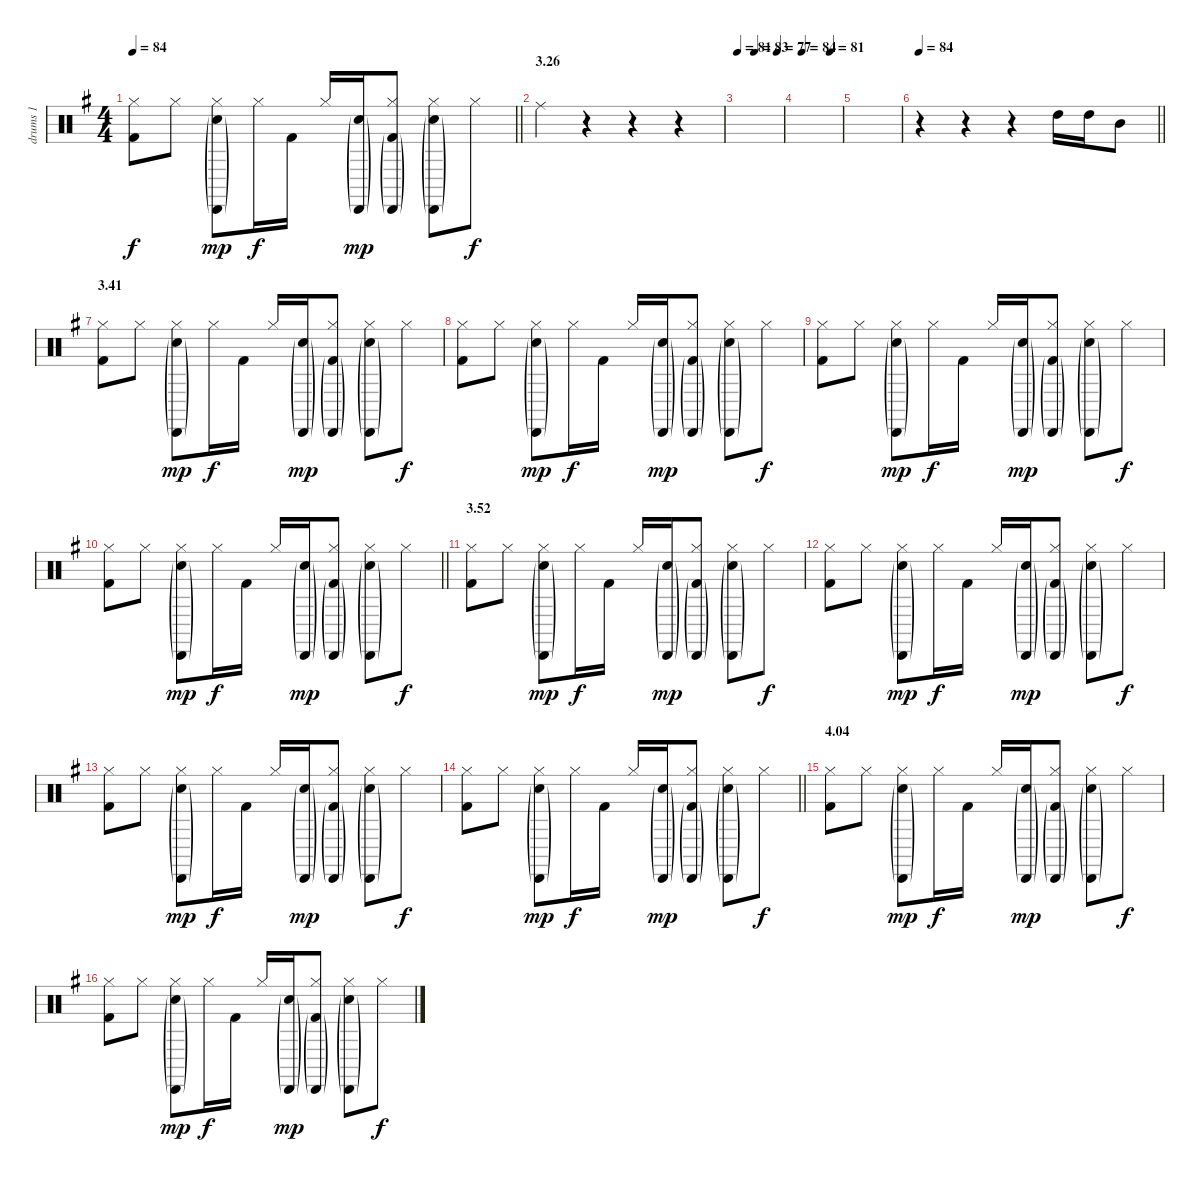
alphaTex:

\track ("drums 1" "drums 1") {instrument percussion}
\staff {score}
\articulation defaults
\ts (4 4)
\tempo 84
\clef neutral
\barLineRight lightlight
\ks g
("Hi-Hat (closed)" "Kick (hit) 2").8{dy f} "Hi-Hat (closed)".8 ("Cabasa (hit)"{g} "Hi-Hat (closed)" "Electric Snare (hit)"{g}).8{dy mp} "Hi-Hat (closed)".16{dy f} "Kick (hit) 2".16 "Hi-Hat (closed)".16 ("Cabasa (hit)"{g} "Electric Snare (hit)"{g}).16{dy mp} ("Cabasa (hit)"{g} "Hi-Hat (closed)" "Kick (hit) 2"{g}).8 ("Cabasa (hit)"{g} "Hi-Hat (closed)" "Electric Snare (hit)"{g}).8 "Hi-Hat (closed)".8{dy f} |
\section ("" "3.26")
"Ride (middle)".4 r.4 r.4 r.4 |
\tempo 81
\tempo (83 0.375)
\tempo (77 0.875)
|
\tempo (84 0.125)
\tempo (81 0.75)
|
|
\tempo 84
\barLineRight lightlight
r.4 r.4 r.4 "High Tom (hit)".16 "High Tom (hit)".16 "Mid Tom (hit)".8 |
\section ("" "3.41")
("Hi-Hat (closed)" "Kick (hit) 2").8 "Hi-Hat (closed)".8 ("Cabasa (hit)"{g} "Hi-Hat (closed)" "Electric Snare (hit)"{g}).8{dy mp} "Hi-Hat (closed)".16{dy f} "Kick (hit) 2".16 "Hi-Hat (closed)".16 ("Cabasa (hit)"{g} "Electric Snare (hit)"{g}).16{dy mp} ("Cabasa (hit)"{g} "Hi-Hat (closed)" "Kick (hit) 2"{g}).8 ("Cabasa (hit)"{g} "Hi-Hat (closed)" "Electric Snare (hit)"{g}).8 "Hi-Hat (closed)".8{dy f} |
("Hi-Hat (closed)" "Kick (hit) 2").8 "Hi-Hat (closed)".8 ("Cabasa (hit)"{g} "Hi-Hat (closed)" "Electric Snare (hit)"{g}).8{dy mp} "Hi-Hat (closed)".16{dy f} "Kick (hit) 2".16 "Hi-Hat (closed)".16 ("Cabasa (hit)"{g} "Electric Snare (hit)"{g}).16{dy mp} ("Cabasa (hit)"{g} "Hi-Hat (closed)" "Kick (hit) 2"{g}).8 ("Cabasa (hit)"{g} "Hi-Hat (closed)" "Electric Snare (hit)"{g}).8 "Hi-Hat (closed)".8{dy f} |
("Hi-Hat (closed)" "Kick (hit) 2").8 "Hi-Hat (closed)".8 ("Cabasa (hit)"{g} "Hi-Hat (closed)" "Electric Snare (hit)"{g}).8{dy mp} "Hi-Hat (closed)".16{dy f} "Kick (hit) 2".16 "Hi-Hat (closed)".16 ("Cabasa (hit)"{g} "Electric Snare (hit)"{g}).16{dy mp} ("Cabasa (hit)"{g} "Hi-Hat (closed)" "Kick (hit) 2"{g}).8 ("Cabasa (hit)"{g} "Hi-Hat (closed)" "Electric Snare (hit)"{g}).8 "Hi-Hat (closed)".8{dy f} |
\barLineRight lightlight
("Hi-Hat (closed)" "Kick (hit) 2").8 "Hi-Hat (closed)".8 ("Cabasa (hit)"{g} "Hi-Hat (closed)" "Electric Snare (hit)"{g}).8{dy mp} "Hi-Hat (closed)".16{dy f} "Kick (hit) 2".16 "Hi-Hat (closed)".16 ("Cabasa (hit)"{g} "Electric Snare (hit)"{g}).16{dy mp} ("Cabasa (hit)"{g} "Hi-Hat (closed)" "Kick (hit) 2"{g}).8 ("Cabasa (hit)"{g} "Hi-Hat (closed)" "Electric Snare (hit)"{g}).8 "Hi-Hat (closed)".8{dy f} |
\section ("" "3.52")
("Hi-Hat (closed)" "Kick (hit) 2").8 "Hi-Hat (closed)".8 ("Cabasa (hit)"{g} "Hi-Hat (closed)" "Electric Snare (hit)"{g}).8{dy mp} "Hi-Hat (closed)".16{dy f} "Kick (hit) 2".16 "Hi-Hat (closed)".16 ("Cabasa (hit)"{g} "Electric Snare (hit)"{g}).16{dy mp} ("Cabasa (hit)"{g} "Hi-Hat (closed)" "Kick (hit) 2"{g}).8 ("Cabasa (hit)"{g} "Hi-Hat (closed)" "Electric Snare (hit)"{g}).8 "Hi-Hat (closed)".8{dy f} |
("Hi-Hat (closed)" "Kick (hit) 2").8 "Hi-Hat (closed)".8 ("Cabasa (hit)"{g} "Hi-Hat (closed)" "Electric Snare (hit)"{g}).8{dy mp} "Hi-Hat (closed)".16{dy f} "Kick (hit) 2".16 "Hi-Hat (closed)".16 ("Cabasa (hit)"{g} "Electric Snare (hit)"{g}).16{dy mp} ("Cabasa (hit)"{g} "Hi-Hat (closed)" "Kick (hit) 2"{g}).8 ("Cabasa (hit)"{g} "Hi-Hat (closed)" "Electric Snare (hit)"{g}).8 "Hi-Hat (closed)".8{dy f} |
("Hi-Hat (closed)" "Kick (hit) 2").8 "Hi-Hat (closed)".8 ("Cabasa (hit)"{g} "Hi-Hat (closed)" "Electric Snare (hit)"{g}).8{dy mp} "Hi-Hat (closed)".16{dy f} "Kick (hit) 2".16 "Hi-Hat (closed)".16 ("Cabasa (hit)"{g} "Electric Snare (hit)"{g}).16{dy mp} ("Cabasa (hit)"{g} "Hi-Hat (closed)" "Kick (hit) 2"{g}).8 ("Cabasa (hit)"{g} "Hi-Hat (closed)" "Electric Snare (hit)"{g}).8 "Hi-Hat (closed)".8{dy f} |
\barLineRight lightlight
("Hi-Hat (closed)" "Kick (hit) 2").8 "Hi-Hat (closed)".8 ("Cabasa (hit)"{g} "Hi-Hat (closed)" "Electric Snare (hit)"{g}).8{dy mp} "Hi-Hat (closed)".16{dy f} "Kick (hit) 2".16 "Hi-Hat (closed)".16 ("Cabasa (hit)"{g} "Electric Snare (hit)"{g}).16{dy mp} ("Cabasa (hit)"{g} "Hi-Hat (closed)" "Kick (hit) 2"{g}).8 ("Cabasa (hit)"{g} "Hi-Hat (closed)" "Electric Snare (hit)"{g}).8 "Hi-Hat (closed)".8{dy f} |
\section ("" "4.04")
("Hi-Hat (closed)" "Kick (hit) 2").8 "Hi-Hat (closed)".8 ("Cabasa (hit)"{g} "Hi-Hat (closed)" "Electric Snare (hit)"{g}).8{dy mp} "Hi-Hat (closed)".16{dy f} "Kick (hit) 2".16 "Hi-Hat (closed)".16 ("Cabasa (hit)"{g} "Electric Snare (hit)"{g}).16{dy mp} ("Cabasa (hit)"{g} "Hi-Hat (closed)" "Kick (hit) 2"{g}).8 ("Cabasa (hit)"{g} "Hi-Hat (closed)" "Electric Snare (hit)"{g}).8 "Hi-Hat (closed)".8{dy f} |
("Hi-Hat (closed)" "Kick (hit) 2").8 "Hi-Hat (closed)".8 ("Cabasa (hit)"{g} "Hi-Hat (closed)" "Electric Snare (hit)"{g}).8{dy mp} "Hi-Hat (closed)".16{dy f} "Kick (hit) 2".16 "Hi-Hat (closed)".16 ("Cabasa (hit)"{g} "Electric Snare (hit)"{g}).16{dy mp} ("Cabasa (hit)"{g} "Hi-Hat (closed)" "Kick (hit) 2"{g}).8 ("Cabasa (hit)"{g} "Hi-Hat (closed)" "Electric Snare (hit)"{g}).8 "Hi-Hat (closed)".8{dy f}
